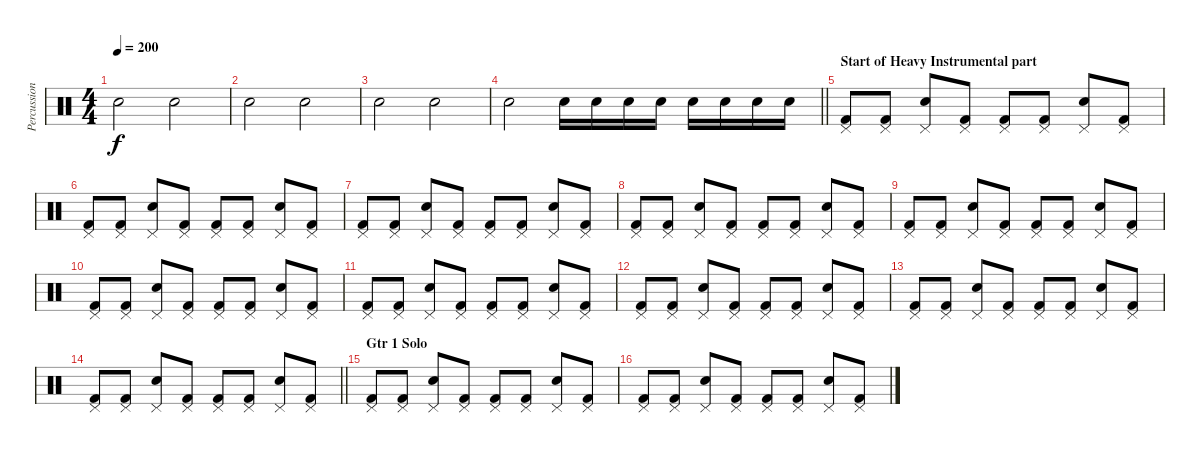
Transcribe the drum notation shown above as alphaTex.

\track ("Percussion" "Percussion") {instrument percussion}
\staff {score}
\articulation defaults
\ts (4 4)
\tempo 200
\clef neutral
\ks c "Snare (hit) 2".2{dy f} "Snare (hit) 2".2
|
"Snare (hit) 2".2 "Snare (hit) 2".2 |
"Snare (hit) 2".2 "Snare (hit) 2".2 |
\barLineRight lightlight "Snare (hit) 2".2 "Snare (hit) 2".16 "Snare (hit) 2".16 "Snare (hit) 2".16 "Snare (hit) 2".16 "Snare (hit) 2".16 "Snare (hit) 2".16 "Snare (hit) 2".16 "Snare (hit) 2".16
|
\section ("" "Start of Heavy Instrumental part")
("Kick (hit) 2" "Pedal Hi-Hat (hit)").8 ("Kick (hit) 2" "Pedal Hi-Hat (hit)").8 ("Snare (hit) 2" "Pedal Hi-Hat (hit)").8 ("Kick (hit) 2" "Pedal Hi-Hat (hit)").8 ("Kick (hit) 2" "Pedal Hi-Hat (hit)").8 ("Kick (hit) 2" "Pedal Hi-Hat (hit)").8 ("Snare (hit) 2" "Pedal Hi-Hat (hit)").8 ("Kick (hit) 2" "Pedal Hi-Hat (hit)").8 |
("Kick (hit) 2" "Pedal Hi-Hat (hit)").8 ("Kick (hit) 2" "Pedal Hi-Hat (hit)").8 ("Snare (hit) 2" "Pedal Hi-Hat (hit)").8 ("Kick (hit) 2" "Pedal Hi-Hat (hit)").8 ("Kick (hit) 2" "Pedal Hi-Hat (hit)").8 ("Kick (hit) 2" "Pedal Hi-Hat (hit)").8 ("Snare (hit) 2" "Pedal Hi-Hat (hit)").8 ("Kick (hit) 2" "Pedal Hi-Hat (hit)").8 |
("Kick (hit) 2" "Pedal Hi-Hat (hit)").8 ("Kick (hit) 2" "Pedal Hi-Hat (hit)").8 ("Snare (hit) 2" "Pedal Hi-Hat (hit)").8 ("Kick (hit) 2" "Pedal Hi-Hat (hit)").8 ("Kick (hit) 2" "Pedal Hi-Hat (hit)").8 ("Kick (hit) 2" "Pedal Hi-Hat (hit)").8 ("Snare (hit) 2" "Pedal Hi-Hat (hit)").8 ("Kick (hit) 2" "Pedal Hi-Hat (hit)").8 |
("Kick (hit) 2" "Pedal Hi-Hat (hit)").8 ("Kick (hit) 2" "Pedal Hi-Hat (hit)").8 ("Snare (hit) 2" "Pedal Hi-Hat (hit)").8 ("Kick (hit) 2" "Pedal Hi-Hat (hit)").8 ("Kick (hit) 2" "Pedal Hi-Hat (hit)").8 ("Kick (hit) 2" "Pedal Hi-Hat (hit)").8 ("Snare (hit) 2" "Pedal Hi-Hat (hit)").8 ("Kick (hit) 2" "Pedal Hi-Hat (hit)").8 |
("Kick (hit) 2" "Pedal Hi-Hat (hit)").8 ("Kick (hit) 2" "Pedal Hi-Hat (hit)").8 ("Snare (hit) 2" "Pedal Hi-Hat (hit)").8 ("Kick (hit) 2" "Pedal Hi-Hat (hit)").8 ("Kick (hit) 2" "Pedal Hi-Hat (hit)").8 ("Kick (hit) 2" "Pedal Hi-Hat (hit)").8 ("Snare (hit) 2" "Pedal Hi-Hat (hit)").8 ("Kick (hit) 2" "Pedal Hi-Hat (hit)").8 |
("Kick (hit) 2" "Pedal Hi-Hat (hit)").8 ("Kick (hit) 2" "Pedal Hi-Hat (hit)").8 ("Snare (hit) 2" "Pedal Hi-Hat (hit)").8 ("Kick (hit) 2" "Pedal Hi-Hat (hit)").8 ("Kick (hit) 2" "Pedal Hi-Hat (hit)").8 ("Kick (hit) 2" "Pedal Hi-Hat (hit)").8 ("Snare (hit) 2" "Pedal Hi-Hat (hit)").8 ("Kick (hit) 2" "Pedal Hi-Hat (hit)").8 |
("Kick (hit) 2" "Pedal Hi-Hat (hit)").8 ("Kick (hit) 2" "Pedal Hi-Hat (hit)").8 ("Snare (hit) 2" "Pedal Hi-Hat (hit)").8 ("Kick (hit) 2" "Pedal Hi-Hat (hit)").8 ("Kick (hit) 2" "Pedal Hi-Hat (hit)").8 ("Kick (hit) 2" "Pedal Hi-Hat (hit)").8 ("Snare (hit) 2" "Pedal Hi-Hat (hit)").8 ("Kick (hit) 2" "Pedal Hi-Hat (hit)").8 |
("Kick (hit) 2" "Pedal Hi-Hat (hit)").8 ("Kick (hit) 2" "Pedal Hi-Hat (hit)").8 ("Snare (hit) 2" "Pedal Hi-Hat (hit)").8 ("Kick (hit) 2" "Pedal Hi-Hat (hit)").8 ("Kick (hit) 2" "Pedal Hi-Hat (hit)").8 ("Kick (hit) 2" "Pedal Hi-Hat (hit)").8 ("Snare (hit) 2" "Pedal Hi-Hat (hit)").8 ("Kick (hit) 2" "Pedal Hi-Hat (hit)").8 |
("Kick (hit) 2" "Pedal Hi-Hat (hit)").8 ("Kick (hit) 2" "Pedal Hi-Hat (hit)").8 ("Snare (hit) 2" "Pedal Hi-Hat (hit)").8 ("Kick (hit) 2" "Pedal Hi-Hat (hit)").8 ("Kick (hit) 2" "Pedal Hi-Hat (hit)").8 ("Kick (hit) 2" "Pedal Hi-Hat (hit)").8 ("Snare (hit) 2" "Pedal Hi-Hat (hit)").8 ("Kick (hit) 2" "Pedal Hi-Hat (hit)").8 |
\barLineRight lightlight
("Kick (hit) 2" "Pedal Hi-Hat (hit)").8 ("Kick (hit) 2" "Pedal Hi-Hat (hit)").8 ("Snare (hit) 2" "Pedal Hi-Hat (hit)").8 ("Kick (hit) 2" "Pedal Hi-Hat (hit)").8 ("Kick (hit) 2" "Pedal Hi-Hat (hit)").8 ("Kick (hit) 2" "Pedal Hi-Hat (hit)").8 ("Snare (hit) 2" "Pedal Hi-Hat (hit)").8 ("Kick (hit) 2" "Pedal Hi-Hat (hit)").8 |
\section ("" "Gtr 1 Solo")
("Kick (hit) 2" "Pedal Hi-Hat (hit)").8 ("Kick (hit) 2" "Pedal Hi-Hat (hit)").8 ("Snare (hit) 2" "Pedal Hi-Hat (hit)").8 ("Kick (hit) 2" "Pedal Hi-Hat (hit)").8 ("Kick (hit) 2" "Pedal Hi-Hat (hit)").8 ("Kick (hit) 2" "Pedal Hi-Hat (hit)").8 ("Snare (hit) 2" "Pedal Hi-Hat (hit)").8 ("Kick (hit) 2" "Pedal Hi-Hat (hit)").8 |
("Kick (hit) 2" "Pedal Hi-Hat (hit)").8 ("Kick (hit) 2" "Pedal Hi-Hat (hit)").8 ("Snare (hit) 2" "Pedal Hi-Hat (hit)").8 ("Kick (hit) 2" "Pedal Hi-Hat (hit)").8 ("Kick (hit) 2" "Pedal Hi-Hat (hit)").8 ("Kick (hit) 2" "Pedal Hi-Hat (hit)").8 ("Snare (hit) 2" "Pedal Hi-Hat (hit)").8 ("Kick (hit) 2" "Pedal Hi-Hat (hit)").8
